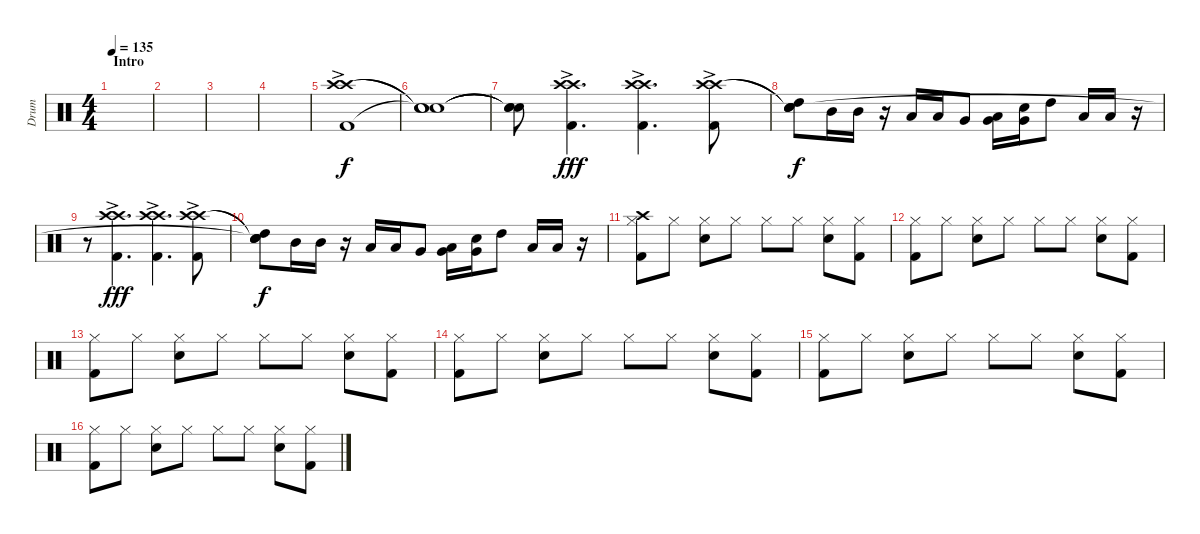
\track ("Drum" "Drum") {instrument percussion}
\staff {score}
\articulation defaults
\ts (4 4)
\section ("" "Intro")
\tempo 135
\clef neutral
\ks c
|
|
|
|
("Crash high (hit)"{ac} "Crash high (hit)"{ac} "Kick (hit) 2"{ac}).1 |
("Snare (hit)"{t} "Snare (hit)"{t} "Snare (hit)"{t}).1{dy f} |
("Snare (hit)"{t} "Snare (hit)"{t} "Snare (hit)"{t}).8 ("Crash high (hit)"{ac} "Crash high (hit)"{ac} "Kick (hit) 2"{ac}).4{d dy fff} ("Crash high (hit)"{ac} "Crash high (hit)"{ac} "Kick (hit) 2"{ac}).4{d} ("Crash high (hit)"{ac} "Crash high (hit)"{ac} "Kick (hit) 2"{ac}).8 |
("Snare (hit)"{t} "Snare (hit)"{t} "High Tom (hit)" "Snare (hit)").8{dy f} "Mid Tom (hit)".16 "Mid Tom (hit)".16 r.16 "Low Tom (hit)".16 "Low Tom (hit)".16 "Very Low Tom (hit)".8 ("Low Floor Tom (hit)" "Very Low Tom (hit)").16 ("Electric Snare (hit)" "Very Low Tom (hit)").16 "High Tom (hit)".8 "Low Floor Tom (hit)".16 "Low Floor Tom (hit)".16 r.16 |
r.8 ("Crash high (hit)"{ac} "Crash high (hit)"{ac} "Kick (hit) 2"{ac}).4{d dy fff} ("Crash high (hit)"{ac} "Crash high (hit)"{ac} "Kick (hit) 2"{ac}).4{d} ("Crash high (hit)"{ac} "Crash high (hit)"{ac} "Kick (hit) 2"{ac}).8 |
("Snare (hit)"{t} "Snare (hit)"{t} "High Tom (hit)" "Snare (hit)"{t}).8{dy f} "Mid Tom (hit)".16 "Mid Tom (hit)".16 r.16 "Low Tom (hit)".16 "Low Tom (hit)".16 "Very Low Tom (hit)".8 ("Low Floor Tom (hit)" "Very Low Tom (hit)").16 ("Electric Snare (hit)" "Very Low Tom (hit)").16 "High Tom (hit)".8 "Low Floor Tom (hit)".16 "Low Floor Tom (hit)".16 r.16 |
("Crash high (hit)" "Hi-Hat (closed)" "Kick (hit) 2").8 "Hi-Hat (closed)".8 ("Snare (hit) 2" "Hi-Hat (closed)").8 "Hi-Hat (closed)".8 "Hi-Hat (closed)".8 "Hi-Hat (closed)".8 ("Snare (hit) 2" "Hi-Hat (closed)").8 ("Hi-Hat (closed)" "Kick (hit) 2").8 |
("Hi-Hat (closed)" "Kick (hit) 2").8 "Hi-Hat (closed)".8 ("Snare (hit) 2" "Hi-Hat (closed)").8 "Hi-Hat (closed)".8 "Hi-Hat (closed)".8 "Hi-Hat (closed)".8 ("Snare (hit) 2" "Hi-Hat (closed)").8 ("Hi-Hat (closed)" "Kick (hit) 2").8 |
("Hi-Hat (closed)" "Kick (hit) 2").8 "Hi-Hat (closed)".8 ("Snare (hit) 2" "Hi-Hat (closed)").8 "Hi-Hat (closed)".8 "Hi-Hat (closed)".8 "Hi-Hat (closed)".8 ("Snare (hit) 2" "Hi-Hat (closed)").8 ("Hi-Hat (closed)" "Kick (hit) 2").8 |
("Hi-Hat (closed)" "Kick (hit) 2").8 "Hi-Hat (closed)".8 ("Snare (hit) 2" "Hi-Hat (closed)").8 "Hi-Hat (closed)".8 "Hi-Hat (closed)".8 "Hi-Hat (closed)".8 ("Snare (hit) 2" "Hi-Hat (closed)").8 ("Hi-Hat (closed)" "Kick (hit) 2").8 |
("Hi-Hat (closed)" "Kick (hit) 2").8 "Hi-Hat (closed)".8 ("Snare (hit) 2" "Hi-Hat (closed)").8 "Hi-Hat (closed)".8 "Hi-Hat (closed)".8 "Hi-Hat (closed)".8 ("Snare (hit) 2" "Hi-Hat (closed)").8 ("Hi-Hat (closed)" "Kick (hit) 2").8 |
("Hi-Hat (closed)" "Kick (hit) 2").8 "Hi-Hat (closed)".8 ("Snare (hit) 2" "Hi-Hat (closed)").8 "Hi-Hat (closed)".8 "Hi-Hat (closed)".8 "Hi-Hat (closed)".8 ("Snare (hit) 2" "Hi-Hat (closed)").8 ("Hi-Hat (closed)" "Kick (hit) 2").8
